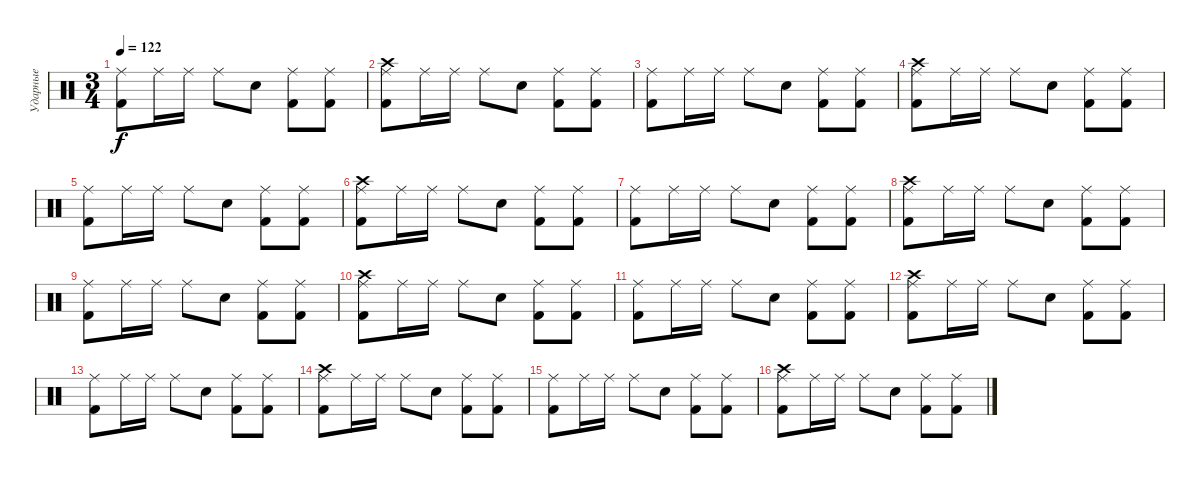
\track ("Ударные" "Ударные") {instrument percussion}
\staff {score}
\articulation defaults
\ts (3 4)
\tempo 122
\clef neutral
\ks c
("Kick (hit) 2" "Ride (middle)").8{dy f} "Ride (middle)".16 "Ride (middle)".16 "Ride (middle)".8 "Electric Snare (hit)".8 ("Kick (hit) 2" "Ride (middle)").8 ("Kick (hit) 2" "Ride (middle)").8 |
("Crash high (hit)" "Kick (hit) 2" "Ride (middle)").8 "Ride (middle)".16 "Ride (middle)".16 "Ride (middle)".8 "Electric Snare (hit)".8 ("Kick (hit) 2" "Ride (middle)").8 ("Kick (hit) 2" "Ride (middle)").8 |
("Kick (hit) 2" "Ride (middle)").8 "Ride (middle)".16 "Ride (middle)".16 "Ride (middle)".8 "Electric Snare (hit)".8 ("Kick (hit) 2" "Ride (middle)").8 ("Kick (hit) 2" "Ride (middle)").8 |
("Crash high (hit)" "Kick (hit) 2" "Ride (middle)").8 "Ride (middle)".16 "Ride (middle)".16 "Ride (middle)".8 "Electric Snare (hit)".8 ("Kick (hit) 2" "Ride (middle)").8 ("Kick (hit) 2" "Ride (middle)").8 |
("Kick (hit) 2" "Ride (middle)").8 "Ride (middle)".16 "Ride (middle)".16 "Ride (middle)".8 "Electric Snare (hit)".8 ("Kick (hit) 2" "Ride (middle)").8 ("Kick (hit) 2" "Ride (middle)").8 |
("Crash high (hit)" "Kick (hit) 2" "Ride (middle)").8 "Ride (middle)".16 "Ride (middle)".16 "Ride (middle)".8 "Electric Snare (hit)".8 ("Kick (hit) 2" "Ride (middle)").8 ("Kick (hit) 2" "Ride (middle)").8 |
("Kick (hit) 2" "Ride (middle)").8 "Ride (middle)".16 "Ride (middle)".16 "Ride (middle)".8 "Electric Snare (hit)".8 ("Kick (hit) 2" "Ride (middle)").8 ("Kick (hit) 2" "Ride (middle)").8 |
("Crash high (hit)" "Kick (hit) 2" "Ride (middle)").8 "Ride (middle)".16 "Ride (middle)".16 "Ride (middle)".8 "Electric Snare (hit)".8 ("Kick (hit) 2" "Ride (middle)").8 ("Kick (hit) 2" "Ride (middle)").8 |
("Kick (hit) 2" "Ride (middle)").8 "Ride (middle)".16 "Ride (middle)".16 "Ride (middle)".8 "Electric Snare (hit)".8 ("Kick (hit) 2" "Ride (middle)").8 ("Kick (hit) 2" "Ride (middle)").8 |
("Crash high (hit)" "Kick (hit) 2" "Ride (middle)").8 "Ride (middle)".16 "Ride (middle)".16 "Ride (middle)".8 "Electric Snare (hit)".8 ("Kick (hit) 2" "Ride (middle)").8 ("Kick (hit) 2" "Ride (middle)").8 |
("Kick (hit) 2" "Ride (middle)").8 "Ride (middle)".16 "Ride (middle)".16 "Ride (middle)".8 "Electric Snare (hit)".8 ("Kick (hit) 2" "Ride (middle)").8 ("Kick (hit) 2" "Ride (middle)").8 |
("Crash high (hit)" "Kick (hit) 2" "Ride (middle)").8 "Ride (middle)".16 "Ride (middle)".16 "Ride (middle)".8 "Electric Snare (hit)".8 ("Kick (hit) 2" "Ride (middle)").8 ("Kick (hit) 2" "Ride (middle)").8 |
("Kick (hit) 2" "Ride (middle)").8 "Ride (middle)".16 "Ride (middle)".16 "Ride (middle)".8 "Electric Snare (hit)".8 ("Kick (hit) 2" "Ride (middle)").8 ("Kick (hit) 2" "Ride (middle)").8 |
("Crash high (hit)" "Kick (hit) 2" "Ride (middle)").8 "Ride (middle)".16 "Ride (middle)".16 "Ride (middle)".8 "Electric Snare (hit)".8 ("Kick (hit) 2" "Ride (middle)").8 ("Kick (hit) 2" "Ride (middle)").8 |
("Kick (hit) 2" "Ride (middle)").8 "Ride (middle)".16 "Ride (middle)".16 "Ride (middle)".8 "Electric Snare (hit)".8 ("Kick (hit) 2" "Ride (middle)").8 ("Kick (hit) 2" "Ride (middle)").8 |
("Crash high (hit)" "Kick (hit) 2" "Ride (middle)").8 "Ride (middle)".16 "Ride (middle)".16 "Ride (middle)".8 "Electric Snare (hit)".8 ("Kick (hit) 2" "Ride (middle)").8 ("Kick (hit) 2" "Ride (middle)").8
